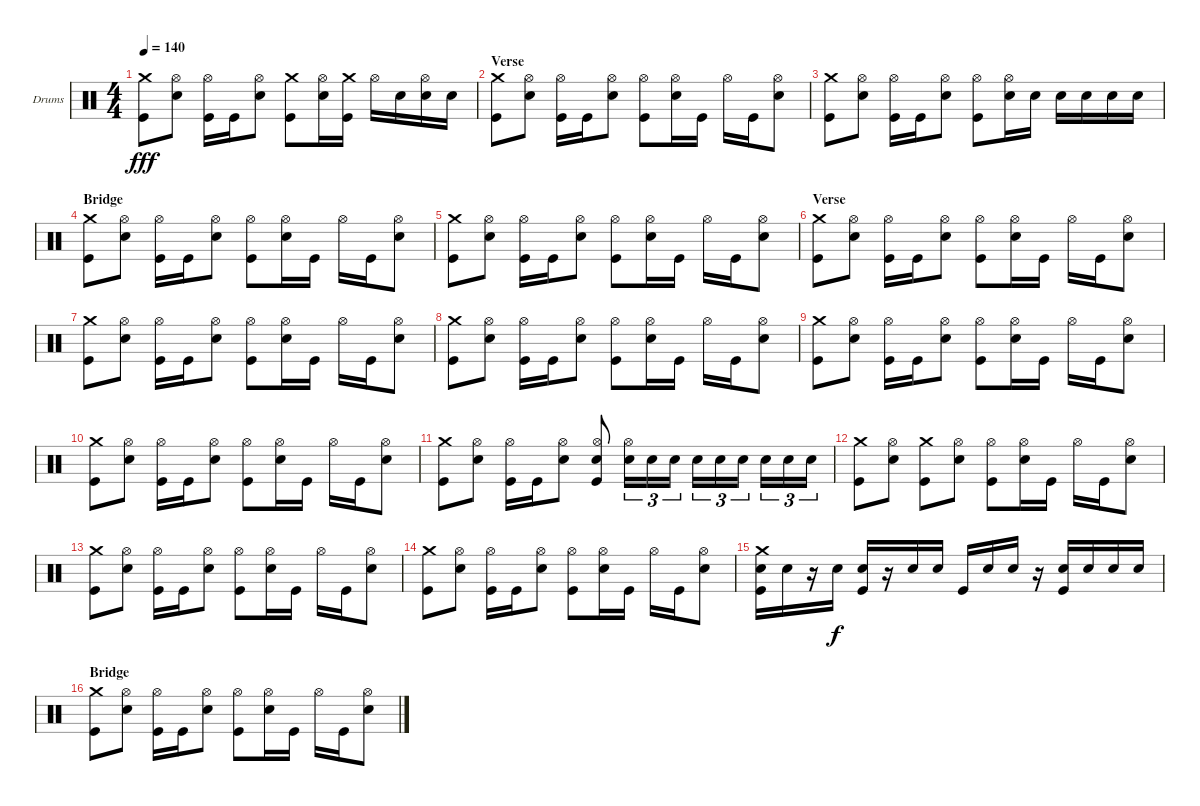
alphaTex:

\defaultSystemsLayout 4
\bracketExtendMode nobrackets
\firstSystemTrackNameOrientation horizontal
\otherSystemsTrackNameOrientation horizontal
\track ("Phil Taylor" "Drums") {instrument percussion}
\staff {score}
\articulation defaults
\ts (4 4)
\tempo 140
\clef neutral
\ks c
("Crash medium (hit)" "Kick (hit)").8{dy fff} ("Hi-Hat (open)" "Snare (hit) 2").8 ("Hi-Hat (open)" "Kick (hit)").16 "Kick (hit)".16 ("Hi-Hat (open)" "Snare (hit) 2").8 ("Crash medium (hit)" "Kick (hit)").8 ("Hi-Hat (open)" "Snare (hit) 2").16 ("Crash medium (hit)" "Kick (hit)").16 "Hi-Hat (open)".16 "Snare (hit) 2".16 ("Hi-Hat (open)" "Snare (hit) 2").16 "Snare (hit) 2".16 |
\section ("" "Verse")
("Crash medium (hit)" "Kick (hit)").8 ("Hi-Hat (open)" "Snare (hit) 2").8 ("Hi-Hat (open)" "Kick (hit)").16 "Kick (hit)".16 ("Hi-Hat (open)" "Snare (hit) 2").8 ("Hi-Hat (open)" "Kick (hit)").8 ("Hi-Hat (open)" "Snare (hit) 2").16 "Kick (hit)".16 "Hi-Hat (open)".16 "Kick (hit)".16 ("Hi-Hat (open)" "Snare (hit) 2").8 |
("Crash medium (hit)" "Kick (hit)").8 ("Hi-Hat (open)" "Snare (hit) 2").8 ("Hi-Hat (open)" "Kick (hit)").16 "Kick (hit)".16 ("Hi-Hat (open)" "Snare (hit) 2").8 ("Hi-Hat (open)" "Kick (hit)").8 ("Hi-Hat (open)" "Snare (hit) 2").16 "Snare (hit) 2".16 "Snare (hit) 2".16 "Snare (hit) 2".16 "Snare (hit) 2".16 "Snare (hit) 2".16 |
\section ("" "Bridge")
("Crash medium (hit)" "Kick (hit)").8 ("Hi-Hat (open)" "Snare (hit) 2").8 ("Hi-Hat (open)" "Kick (hit)").16 "Kick (hit)".16 ("Hi-Hat (open)" "Snare (hit) 2").8 ("Hi-Hat (open)" "Kick (hit)").8 ("Hi-Hat (open)" "Snare (hit) 2").16 "Kick (hit)".16 "Hi-Hat (open)".16 "Kick (hit)".16 ("Hi-Hat (open)" "Snare (hit) 2").8 |
("Crash medium (hit)" "Kick (hit)").8 ("Hi-Hat (open)" "Snare (hit) 2").8 ("Hi-Hat (open)" "Kick (hit)").16 "Kick (hit)".16 ("Hi-Hat (open)" "Snare (hit) 2").8 ("Hi-Hat (open)" "Kick (hit)").8 ("Hi-Hat (open)" "Snare (hit) 2").16 "Kick (hit)".16 "Hi-Hat (open)".16 "Kick (hit)".16 ("Hi-Hat (open)" "Snare (hit) 2").8 |
\section ("" "Verse")
("Crash medium (hit)" "Kick (hit)").8 ("Hi-Hat (open)" "Snare (hit) 2").8 ("Hi-Hat (open)" "Kick (hit)").16 "Kick (hit)".16 ("Hi-Hat (open)" "Snare (hit) 2").8 ("Hi-Hat (open)" "Kick (hit)").8 ("Hi-Hat (open)" "Snare (hit) 2").16 "Kick (hit)".16 "Hi-Hat (open)".16 "Kick (hit)".16 ("Hi-Hat (open)" "Snare (hit) 2").8 |
("Crash medium (hit)" "Kick (hit)").8 ("Hi-Hat (open)" "Snare (hit) 2").8 ("Hi-Hat (open)" "Kick (hit)").16 "Kick (hit)".16 ("Hi-Hat (open)" "Snare (hit) 2").8 ("Hi-Hat (open)" "Kick (hit)").8 ("Hi-Hat (open)" "Snare (hit) 2").16 "Kick (hit)".16 "Hi-Hat (open)".16 "Kick (hit)".16 ("Hi-Hat (open)" "Snare (hit) 2").8 |
("Crash medium (hit)" "Kick (hit)").8 ("Hi-Hat (open)" "Snare (hit) 2").8 ("Hi-Hat (open)" "Kick (hit)").16 "Kick (hit)".16 ("Hi-Hat (open)" "Snare (hit) 2").8 ("Hi-Hat (open)" "Kick (hit)").8 ("Hi-Hat (open)" "Snare (hit) 2").16 "Kick (hit)".16 "Hi-Hat (open)".16 "Kick (hit)".16 ("Hi-Hat (open)" "Snare (hit) 2").8 |
("Crash medium (hit)" "Kick (hit)").8 ("Hi-Hat (open)" "Snare (hit) 2").8 ("Hi-Hat (open)" "Kick (hit)").16 "Kick (hit)".16 ("Hi-Hat (open)" "Snare (hit) 2").8 ("Hi-Hat (open)" "Kick (hit)").8 ("Hi-Hat (open)" "Snare (hit) 2").16 "Kick (hit)".16 "Hi-Hat (open)".16 "Kick (hit)".16 ("Hi-Hat (open)" "Snare (hit) 2").8 |
("Crash medium (hit)" "Kick (hit)").8 ("Hi-Hat (open)" "Snare (hit) 2").8 ("Hi-Hat (open)" "Kick (hit)").16 "Kick (hit)".16 ("Hi-Hat (open)" "Snare (hit) 2").8 ("Hi-Hat (open)" "Kick (hit)").8 ("Hi-Hat (open)" "Snare (hit) 2").16 "Kick (hit)".16 "Hi-Hat (open)".16 "Kick (hit)".16 ("Hi-Hat (open)" "Snare (hit) 2").8 |
("Crash medium (hit)" "Kick (hit)").8 ("Hi-Hat (open)" "Snare (hit) 2").8 ("Hi-Hat (open)" "Kick (hit)").16 "Kick (hit)".16 ("Hi-Hat (open)" "Snare (hit) 2").8 ("Hi-Hat (open)" "Snare (hit) 2" "Kick (hit)").8 ("Hi-Hat (open)" "Snare (hit) 2").16{tu (3 2)} "Snare (hit) 2".16{tu (3 2)} "Snare (hit) 2".16{tu (3 2)} "Snare (hit) 2".16{tu (3 2)} "Snare (hit) 2".16{tu (3 2)} "Snare (hit) 2".16{tu (3 2)} "Snare (hit) 2".16{tu (3 2)} "Snare (hit) 2".16{tu (3 2)} "Snare (hit) 2".16{tu (3 2)} |
("Crash medium (hit)" "Kick (hit)").8 ("Hi-Hat (open)" "Snare (hit) 2").8 ("Crash medium (hit)" "Kick (hit)").8 ("Hi-Hat (open)" "Snare (hit) 2").8 ("Hi-Hat (open)" "Kick (hit)").8 ("Hi-Hat (open)" "Snare (hit) 2").16 "Kick (hit)".16 "Hi-Hat (open)".16 "Kick (hit)".16 ("Hi-Hat (open)" "Snare (hit) 2").8 |
("Crash medium (hit)" "Kick (hit)").8 ("Hi-Hat (open)" "Snare (hit) 2").8 ("Hi-Hat (open)" "Kick (hit)").16 "Kick (hit)".16 ("Hi-Hat (open)" "Snare (hit) 2").8 ("Hi-Hat (open)" "Kick (hit)").8 ("Hi-Hat (open)" "Snare (hit) 2").16 "Kick (hit)".16 "Hi-Hat (open)".16 "Kick (hit)".16 ("Hi-Hat (open)" "Snare (hit) 2").8 |
("Crash medium (hit)" "Kick (hit)").8 ("Hi-Hat (open)" "Snare (hit) 2").8 ("Hi-Hat (open)" "Kick (hit)").16 "Kick (hit)".16 ("Hi-Hat (open)" "Snare (hit) 2").8 ("Hi-Hat (open)" "Kick (hit)").8 ("Hi-Hat (open)" "Snare (hit) 2").16 "Kick (hit)".16 "Hi-Hat (open)".16 "Kick (hit)".16 ("Hi-Hat (open)" "Snare (hit) 2").8 |
("Crash medium (hit)" "Snare (hit) 2" "Kick (hit)").16 "Snare (hit) 2".16 r.16 "Snare (hit) 2".16{dy f} ("Snare (hit) 2" "Kick (hit)").16 r.16 "Snare (hit) 2".16 "Snare (hit) 2".16 "Kick (hit)".16 "Snare (hit) 2".16 "Snare (hit) 2".16 r.16 ("Snare (hit) 2" "Kick (hit)").16 "Snare (hit) 2".16 "Snare (hit) 2".16 "Snare (hit) 2".16 |
\section ("" "Bridge")
("Crash medium (hit)" "Kick (hit)").8 ("Hi-Hat (open)" "Snare (hit) 2").8 ("Hi-Hat (open)" "Kick (hit)").16 "Kick (hit)".16 ("Hi-Hat (open)" "Snare (hit) 2").8 ("Hi-Hat (open)" "Kick (hit)").8 ("Hi-Hat (open)" "Snare (hit) 2").16 "Kick (hit)".16 "Hi-Hat (open)".16 "Kick (hit)".16 ("Hi-Hat (open)" "Snare (hit) 2").8
